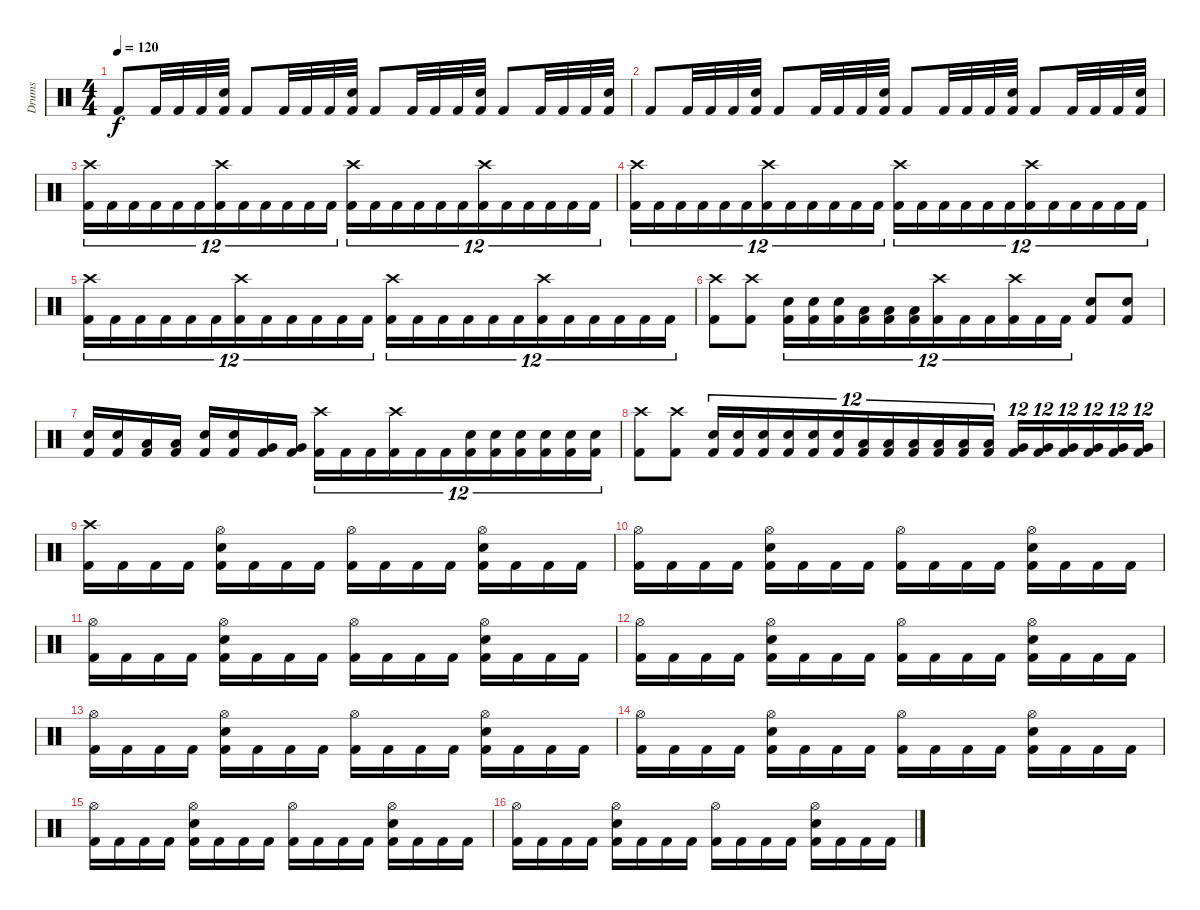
\track ("Drums" "Drums") {instrument percussion}
\staff {score}
\articulation defaults
\ts (4 4)
\tempo 120
\clef neutral
\ks c "Kick (hit) 2".8{dy f} "Kick (hit) 2".32 "Kick (hit) 2".32 "Kick (hit) 2".32
("Electric Snare (hit)" "Kick (hit) 2").32 "Kick (hit) 2".8 "Kick (hit) 2".32 "Kick (hit) 2".32 "Kick (hit) 2".32 ("Electric Snare (hit)" "Kick (hit) 2").32 "Kick (hit) 2".8 "Kick (hit) 2".32 "Kick (hit) 2".32 "Kick (hit) 2".32 ("Electric Snare (hit)" "Kick (hit) 2").32 "Kick (hit) 2".8 "Kick (hit) 2".32 "Kick (hit) 2".32 "Kick (hit) 2".32 ("Electric Snare (hit)" "Kick (hit) 2").32 |
"Kick (hit) 2".8 "Kick (hit) 2".32 "Kick (hit) 2".32 "Kick (hit) 2".32 ("Electric Snare (hit)" "Kick (hit) 2").32 "Kick (hit) 2".8 "Kick (hit) 2".32 "Kick (hit) 2".32 "Kick (hit) 2".32 ("Electric Snare (hit)" "Kick (hit) 2").32 "Kick (hit) 2".8 "Kick (hit) 2".32 "Kick (hit) 2".32 "Kick (hit) 2".32 ("Electric Snare (hit)" "Kick (hit) 2").32 "Kick (hit) 2".8 "Kick (hit) 2".32 "Kick (hit) 2".32 "Kick (hit) 2".32 ("Electric Snare (hit)" "Kick (hit) 2").32 |
("Crash high (hit)" "Kick (hit) 2").16{tu (12 8)} "Kick (hit) 2".16{tu (12 8)} "Kick (hit) 2".16{tu (12 8)} "Kick (hit) 2".16{tu (12 8)} "Kick (hit) 2".16{tu (12 8)} "Kick (hit) 2".16{tu (12 8)} ("Crash high (hit)" "Kick (hit) 2").16{tu (12 8)} "Kick (hit) 2".16{tu (12 8)} "Kick (hit) 2".16{tu (12 8)} "Kick (hit) 2".16{tu (12 8)} "Kick (hit) 2".16{tu (12 8)} "Kick (hit) 2".16{tu (12 8)} ("Crash high (hit)" "Kick (hit) 2").16{tu (12 8)} "Kick (hit) 2".16{tu (12 8)} "Kick (hit) 2".16{tu (12 8)} "Kick (hit) 2".16{tu (12 8)} "Kick (hit) 2".16{tu (12 8)} "Kick (hit) 2".16{tu (12 8)} ("Crash high (hit)" "Kick (hit) 2").16{tu (12 8)} "Kick (hit) 2".16{tu (12 8)} "Kick (hit) 2".16{tu (12 8)} "Kick (hit) 2".16{tu (12 8)} "Kick (hit) 2".16{tu (12 8)} "Kick (hit) 2".16{tu (12 8)} |
("Crash high (hit)" "Kick (hit) 2").16{tu (12 8)} "Kick (hit) 2".16{tu (12 8)} "Kick (hit) 2".16{tu (12 8)} "Kick (hit) 2".16{tu (12 8)} "Kick (hit) 2".16{tu (12 8)} "Kick (hit) 2".16{tu (12 8)} ("Crash high (hit)" "Kick (hit) 2").16{tu (12 8)} "Kick (hit) 2".16{tu (12 8)} "Kick (hit) 2".16{tu (12 8)} "Kick (hit) 2".16{tu (12 8)} "Kick (hit) 2".16{tu (12 8)} "Kick (hit) 2".16{tu (12 8)} ("Crash high (hit)" "Kick (hit) 2").16{tu (12 8)} "Kick (hit) 2".16{tu (12 8)} "Kick (hit) 2".16{tu (12 8)} "Kick (hit) 2".16{tu (12 8)} "Kick (hit) 2".16{tu (12 8)} "Kick (hit) 2".16{tu (12 8)} ("Crash high (hit)" "Kick (hit) 2").16{tu (12 8)} "Kick (hit) 2".16{tu (12 8)} "Kick (hit) 2".16{tu (12 8)} "Kick (hit) 2".16{tu (12 8)} "Kick (hit) 2".16{tu (12 8)} "Kick (hit) 2".16{tu (12 8)} |
("Crash high (hit)" "Kick (hit) 2").16{tu (12 8)} "Kick (hit) 2".16{tu (12 8)} "Kick (hit) 2".16{tu (12 8)} "Kick (hit) 2".16{tu (12 8)} "Kick (hit) 2".16{tu (12 8)} "Kick (hit) 2".16{tu (12 8)} ("Crash high (hit)" "Kick (hit) 2").16{tu (12 8)} "Kick (hit) 2".16{tu (12 8)} "Kick (hit) 2".16{tu (12 8)} "Kick (hit) 2".16{tu (12 8)} "Kick (hit) 2".16{tu (12 8)} "Kick (hit) 2".16{tu (12 8)} ("Crash high (hit)" "Kick (hit) 2").16{tu (12 8)} "Kick (hit) 2".16{tu (12 8)} "Kick (hit) 2".16{tu (12 8)} "Kick (hit) 2".16{tu (12 8)} "Kick (hit) 2".16{tu (12 8)} "Kick (hit) 2".16{tu (12 8)} ("Crash high (hit)" "Kick (hit) 2").16{tu (12 8)} "Kick (hit) 2".16{tu (12 8)} "Kick (hit) 2".16{tu (12 8)} "Kick (hit) 2".16{tu (12 8)} "Kick (hit) 2".16{tu (12 8)} "Kick (hit) 2".16{tu (12 8)} |
("Crash high (hit)" "Kick (hit) 2").8 ("Crash high (hit)" "Kick (hit) 2").8 ("Electric Snare (hit)" "Kick (hit) 2").16{tu (12 8)} ("Electric Snare (hit)" "Kick (hit) 2").16{tu (12 8)} ("Electric Snare (hit)" "Kick (hit) 2").16{tu (12 8)} ("Low Floor Tom (hit)" "Kick (hit) 2").16{tu (12 8)} ("Low Floor Tom (hit)" "Kick (hit) 2").16{tu (12 8)} ("Low Floor Tom (hit)" "Kick (hit) 2").16{tu (12 8)} ("Crash high (hit)" "Kick (hit) 2").16{tu (12 8)} "Kick (hit) 2".16{tu (12 8)} "Kick (hit) 2".16{tu (12 8)} ("Crash high (hit)" "Kick (hit) 2").16{tu (12 8)} "Kick (hit) 2".16{tu (12 8)} "Kick (hit) 2".16{tu (12 8)} ("Electric Snare (hit)" "Kick (hit) 2").8 ("Electric Snare (hit)" "Kick (hit) 2").8 |
("Electric Snare (hit)" "Kick (hit) 2").16 ("Electric Snare (hit)" "Kick (hit) 2").16 ("Low Floor Tom (hit)" "Kick (hit) 2").16 ("Low Floor Tom (hit)" "Kick (hit) 2").16 ("Electric Snare (hit)" "Kick (hit) 2").16 ("Electric Snare (hit)" "Kick (hit) 2").16 ("Very Low Tom (hit)" "Kick (hit) 2").16 ("Very Low Tom (hit)" "Kick (hit) 2").16 ("Crash high (hit)" "Kick (hit) 2").16{tu (12 8)} "Kick (hit) 2".16{tu (12 8)} "Kick (hit) 2".16{tu (12 8)} ("Crash high (hit)" "Kick (hit) 2").16{tu (12 8)} "Kick (hit) 2".16{tu (12 8)} "Kick (hit) 2".16{tu (12 8)} ("Electric Snare (hit)" "Kick (hit) 2").16{tu (12 8)} ("Electric Snare (hit)" "Kick (hit) 2").16{tu (12 8)} ("Electric Snare (hit)" "Kick (hit) 2").16{tu (12 8)} ("Electric Snare (hit)" "Kick (hit) 2").16{tu (12 8)} ("Electric Snare (hit)" "Kick (hit) 2").16{tu (12 8)} ("Electric Snare (hit)" "Kick (hit) 2").16{tu (12 8)} |
("Crash high (hit)" "Kick (hit) 2").8 ("Crash high (hit)" "Kick (hit) 2").8 ("Electric Snare (hit)" "Kick (hit) 2").16{tu (12 8)} ("Electric Snare (hit)" "Kick (hit) 2").16{tu (12 8)} ("Electric Snare (hit)" "Kick (hit) 2").16{tu (12 8)} ("Electric Snare (hit)" "Kick (hit) 2").16{tu (12 8)} ("Electric Snare (hit)" "Kick (hit) 2").16{tu (12 8)} ("Electric Snare (hit)" "Kick (hit) 2").16{tu (12 8)} ("Low Floor Tom (hit)" "Kick (hit) 2").16{tu (12 8)} ("Low Floor Tom (hit)" "Kick (hit) 2").16{tu (12 8)} ("Low Floor Tom (hit)" "Kick (hit) 2").16{tu (12 8)} ("Low Floor Tom (hit)" "Kick (hit) 2").16{tu (12 8)} ("Low Floor Tom (hit)" "Kick (hit) 2").16{tu (12 8)} ("Low Floor Tom (hit)" "Kick (hit) 2").16{tu (12 8)} ("Very Low Tom (hit)" "Kick (hit) 2").16{tu (12 8)} ("Very Low Tom (hit)" "Kick (hit) 2").16{tu (12 8)} ("Very Low Tom (hit)" "Kick (hit) 2").16{tu (12 8)} ("Very Low Tom (hit)" "Kick (hit) 2").16{tu (12 8)} ("Very Low Tom (hit)" "Kick (hit) 2").16{tu (12 8)} ("Very Low Tom (hit)" "Kick (hit) 2").16{tu (12 8)} |
("Crash high (hit)" "Kick (hit) 2").16 "Kick (hit) 2".16 "Kick (hit) 2".16 "Kick (hit) 2".16 ("Hi-Hat (open)" "Electric Snare (hit)" "Kick (hit) 2").16 "Kick (hit) 2".16 "Kick (hit) 2".16 "Kick (hit) 2".16 ("Hi-Hat (open)" "Kick (hit) 2").16 "Kick (hit) 2".16 "Kick (hit) 2".16 "Kick (hit) 2".16 ("Hi-Hat (open)" "Electric Snare (hit)" "Kick (hit) 2").16 "Kick (hit) 2".16 "Kick (hit) 2".16 "Kick (hit) 2".16 |
("Hi-Hat (open)" "Kick (hit) 2").16 "Kick (hit) 2".16 "Kick (hit) 2".16 "Kick (hit) 2".16 ("Hi-Hat (open)" "Electric Snare (hit)" "Kick (hit) 2").16 "Kick (hit) 2".16 "Kick (hit) 2".16 "Kick (hit) 2".16 ("Hi-Hat (open)" "Kick (hit) 2").16 "Kick (hit) 2".16 "Kick (hit) 2".16 "Kick (hit) 2".16 ("Hi-Hat (open)" "Electric Snare (hit)" "Kick (hit) 2").16 "Kick (hit) 2".16 "Kick (hit) 2".16 "Kick (hit) 2".16 |
("Hi-Hat (open)" "Kick (hit) 2").16 "Kick (hit) 2".16 "Kick (hit) 2".16 "Kick (hit) 2".16 ("Hi-Hat (open)" "Electric Snare (hit)" "Kick (hit) 2").16 "Kick (hit) 2".16 "Kick (hit) 2".16 "Kick (hit) 2".16 ("Hi-Hat (open)" "Kick (hit) 2").16 "Kick (hit) 2".16 "Kick (hit) 2".16 "Kick (hit) 2".16 ("Hi-Hat (open)" "Electric Snare (hit)" "Kick (hit) 2").16 "Kick (hit) 2".16 "Kick (hit) 2".16 "Kick (hit) 2".16 |
("Hi-Hat (open)" "Kick (hit) 2").16 "Kick (hit) 2".16 "Kick (hit) 2".16 "Kick (hit) 2".16 ("Hi-Hat (open)" "Electric Snare (hit)" "Kick (hit) 2").16 "Kick (hit) 2".16 "Kick (hit) 2".16 "Kick (hit) 2".16 ("Hi-Hat (open)" "Kick (hit) 2").16 "Kick (hit) 2".16 "Kick (hit) 2".16 "Kick (hit) 2".16 ("Hi-Hat (open)" "Electric Snare (hit)" "Kick (hit) 2").16 "Kick (hit) 2".16 "Kick (hit) 2".16 "Kick (hit) 2".16 |
("Hi-Hat (open)" "Kick (hit) 2").16 "Kick (hit) 2".16 "Kick (hit) 2".16 "Kick (hit) 2".16 ("Hi-Hat (open)" "Electric Snare (hit)" "Kick (hit) 2").16 "Kick (hit) 2".16 "Kick (hit) 2".16 "Kick (hit) 2".16 ("Hi-Hat (open)" "Kick (hit) 2").16 "Kick (hit) 2".16 "Kick (hit) 2".16 "Kick (hit) 2".16 ("Hi-Hat (open)" "Electric Snare (hit)" "Kick (hit) 2").16 "Kick (hit) 2".16 "Kick (hit) 2".16 "Kick (hit) 2".16 |
("Hi-Hat (open)" "Kick (hit) 2").16 "Kick (hit) 2".16 "Kick (hit) 2".16 "Kick (hit) 2".16 ("Hi-Hat (open)" "Electric Snare (hit)" "Kick (hit) 2").16 "Kick (hit) 2".16 "Kick (hit) 2".16 "Kick (hit) 2".16 ("Hi-Hat (open)" "Kick (hit) 2").16 "Kick (hit) 2".16 "Kick (hit) 2".16 "Kick (hit) 2".16 ("Hi-Hat (open)" "Electric Snare (hit)" "Kick (hit) 2").16 "Kick (hit) 2".16 "Kick (hit) 2".16 "Kick (hit) 2".16 |
("Hi-Hat (open)" "Kick (hit) 2").16 "Kick (hit) 2".16 "Kick (hit) 2".16 "Kick (hit) 2".16 ("Hi-Hat (open)" "Electric Snare (hit)" "Kick (hit) 2").16 "Kick (hit) 2".16 "Kick (hit) 2".16 "Kick (hit) 2".16 ("Hi-Hat (open)" "Kick (hit) 2").16 "Kick (hit) 2".16 "Kick (hit) 2".16 "Kick (hit) 2".16 ("Hi-Hat (open)" "Electric Snare (hit)" "Kick (hit) 2").16 "Kick (hit) 2".16 "Kick (hit) 2".16 "Kick (hit) 2".16 |
("Hi-Hat (open)" "Kick (hit) 2").16 "Kick (hit) 2".16 "Kick (hit) 2".16 "Kick (hit) 2".16 ("Hi-Hat (open)" "Electric Snare (hit)" "Kick (hit) 2").16 "Kick (hit) 2".16 "Kick (hit) 2".16 "Kick (hit) 2".16 ("Hi-Hat (open)" "Kick (hit) 2").16 "Kick (hit) 2".16 "Kick (hit) 2".16 "Kick (hit) 2".16 ("Hi-Hat (open)" "Electric Snare (hit)" "Kick (hit) 2").16 "Kick (hit) 2".16 "Kick (hit) 2".16 "Kick (hit) 2".16
